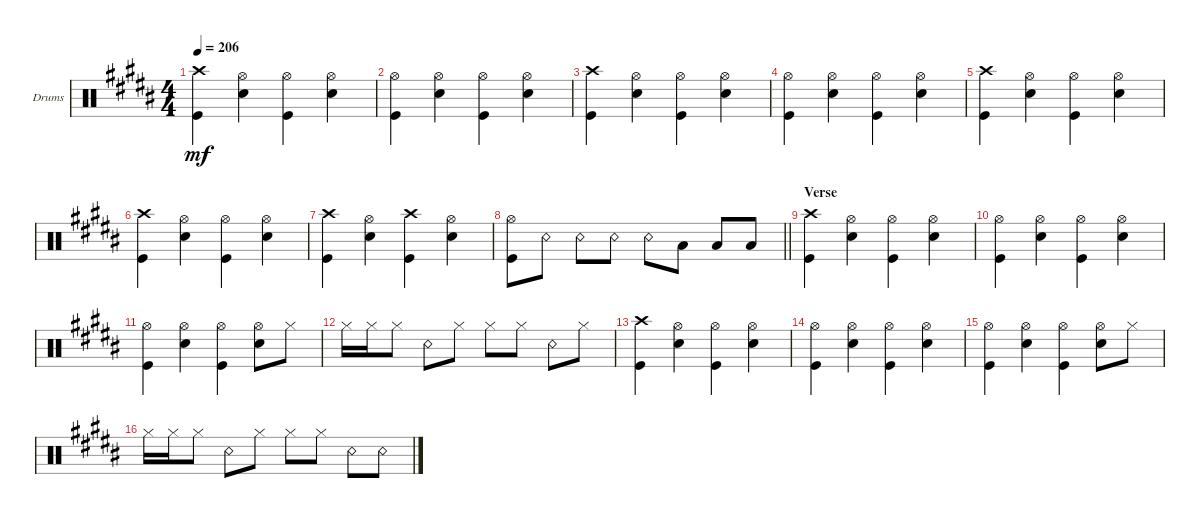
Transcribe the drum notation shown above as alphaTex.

\defaultSystemsLayout 4
\bracketExtendMode groupsimilarinstruments
\firstSystemTrackNameOrientation horizontal
\otherSystemsTrackNameOrientation horizontal
\track ("Drums" "Drums") {instrument percussion}
\staff {score}
\articulation defaults
\ts (4 4)
\tempo 206
\clef neutral
\ks b
("Kick (hit)" "Crash high (hit)").4{dy mf} ("Hi-Hat (open)" "Snare (hit) 2").4 ("Hi-Hat (open)" "Kick (hit)").4 ("Hi-Hat (open)" "Snare (hit) 2").4 |
("Kick (hit)" "Hi-Hat (open)").4 ("Hi-Hat (open)" "Snare (hit) 2").4 ("Hi-Hat (open)" "Kick (hit)").4 ("Hi-Hat (open)" "Snare (hit) 2").4 |
("Kick (hit)" "Crash high (hit)").4 ("Hi-Hat (open)" "Snare (hit) 2").4 ("Hi-Hat (open)" "Kick (hit)").4 ("Hi-Hat (open)" "Snare (hit) 2").4 |
("Kick (hit)" "Hi-Hat (open)").4 ("Hi-Hat (open)" "Snare (hit) 2").4 ("Hi-Hat (open)" "Kick (hit)").4 ("Hi-Hat (open)" "Snare (hit) 2").4 |
("Kick (hit)" "Crash high (hit)").4 ("Hi-Hat (open)" "Snare (hit) 2").4 ("Hi-Hat (open)" "Kick (hit)").4 ("Hi-Hat (open)" "Snare (hit) 2").4 |
("Kick (hit)" "Crash high (hit)").4 ("Hi-Hat (open)" "Snare (hit) 2").4 ("Hi-Hat (open)" "Kick (hit)").4 ("Hi-Hat (open)" "Snare (hit) 2").4 |
("Kick (hit)" "Crash high (hit)").4 ("Hi-Hat (open)" "Snare (hit) 2").4 ("Kick (hit)" "Crash high (hit)").4 ("Hi-Hat (open)" "Snare (hit) 2").4 |
\barLineRight lightlight
("Kick (hit)" "Hi-Hat (open)").8 "Snare (rim shot)".8 "Snare (rim shot)".8 "Snare (rim shot)".8 "Snare (rim shot)".8 "Low Tom (hit)".8 "Low Tom (hit)".8 "Low Tom (hit)".8 |
\section ("" "Verse")
("Kick (hit)" "Crash high (hit)").4 ("Hi-Hat (open)" "Snare (hit) 2").4 ("Hi-Hat (open)" "Kick (hit)").4 ("Hi-Hat (open)" "Snare (hit) 2").4 |
("Hi-Hat (open)" "Kick (hit)").4 ("Hi-Hat (open)" "Snare (hit) 2").4 ("Hi-Hat (open)" "Kick (hit)").4 ("Hi-Hat (open)" "Snare (hit) 2").4 |
("Hi-Hat (open)" "Kick (hit)").4 ("Hi-Hat (open)" "Snare (hit) 2").4 ("Hi-Hat (open)" "Kick (hit)").4 ("Hi-Hat (open)" "Snare (hit) 2").8 "Hi-Hat (closed)".8 |
"Hi-Hat (closed)".16 "Hi-Hat (closed)".16 "Hi-Hat (closed)".8 "Snare (rim shot)".8 "Hi-Hat (closed)".8 "Hi-Hat (closed)".8 "Hi-Hat (closed)".8 "Snare (rim shot)".8 "Hi-Hat (closed)".8 |
("Kick (hit)" "Crash high (hit)").4 ("Hi-Hat (open)" "Snare (hit) 2").4 ("Hi-Hat (open)" "Kick (hit)").4 ("Hi-Hat (open)" "Snare (hit) 2").4 |
("Hi-Hat (open)" "Kick (hit)").4 ("Hi-Hat (open)" "Snare (hit) 2").4 ("Hi-Hat (open)" "Kick (hit)").4 ("Hi-Hat (open)" "Snare (hit) 2").4 |
("Hi-Hat (open)" "Kick (hit)").4 ("Hi-Hat (open)" "Snare (hit) 2").4 ("Hi-Hat (open)" "Kick (hit)").4 ("Hi-Hat (open)" "Snare (hit) 2").8 "Hi-Hat (closed)".8 |
"Hi-Hat (closed)".16 "Hi-Hat (closed)".16 "Hi-Hat (closed)".8 "Snare (rim shot)".8 "Hi-Hat (closed)".8 "Hi-Hat (closed)".8 "Hi-Hat (closed)".8 "Snare (rim shot)".8 "Snare (rim shot)".8
